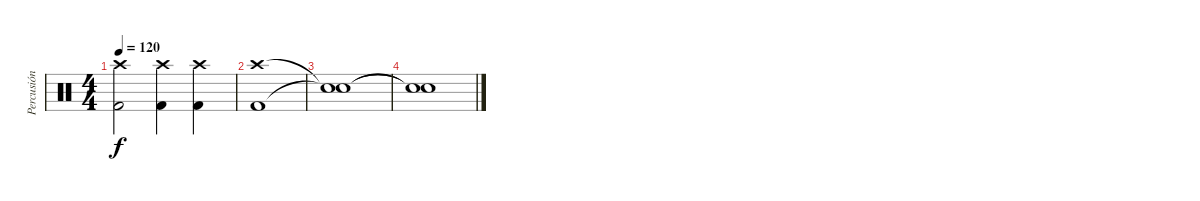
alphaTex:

\track ("Percusión" "Percusión") {instrument percussion}
\staff {score}
\articulation defaults
\ts (4 4)
\tempo 120
\clef neutral
\ks c
("Crash high (hit)" "Kick (hit) 2").2{dy f} ("Crash high (hit)" "Kick (hit) 2").4 ("Crash high (hit)" "Kick (hit) 2").4 |
("Crash high (hit)" "Kick (hit) 2").1 |
("Snare (hit)"{t} "Snare (hit)"{t}).1 |
("Snare (hit)"{t} "Snare (hit)"{t}).1
